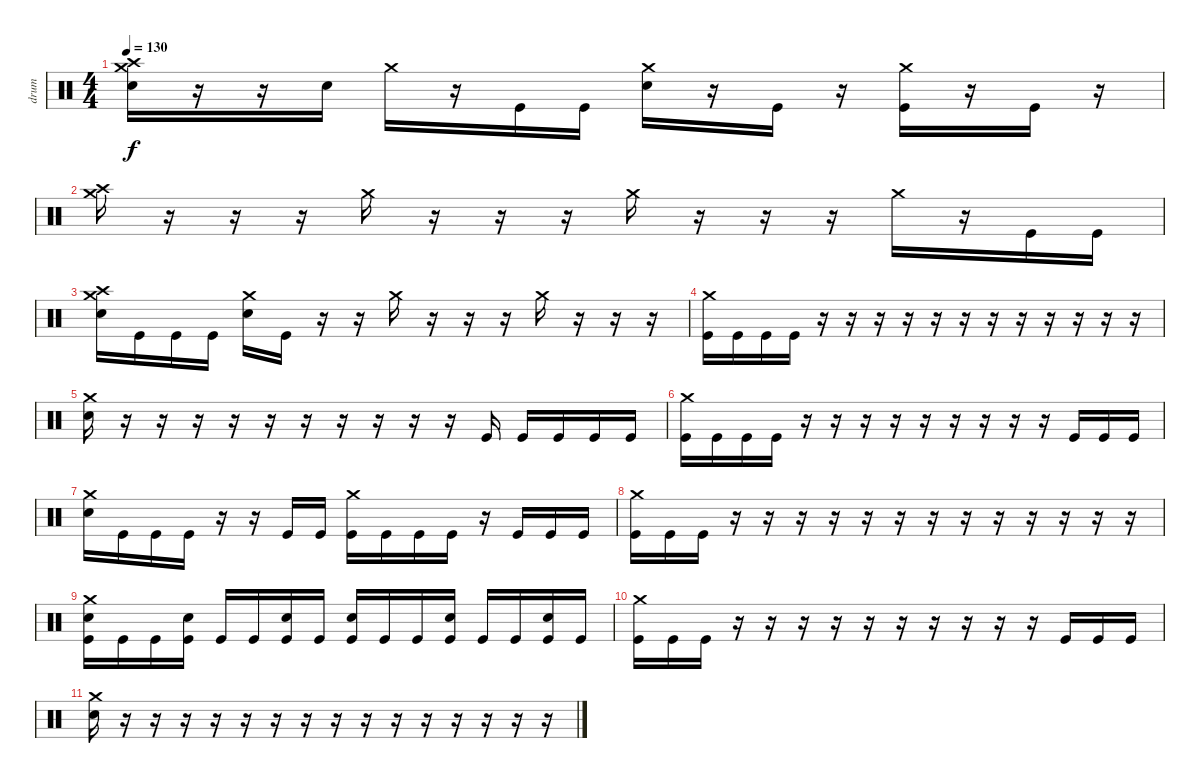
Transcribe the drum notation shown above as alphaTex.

\track ("drum" "drum") {instrument percussion}
\staff {score}
\articulation defaults
\ts (4 4)
\tempo 130
\clef neutral
\ks c
("Crash high (hit)" "Crash medium (hit)" "Snare (hit) 2").16{dy f} r.16 r.16 "Snare (hit) 2".16 "Crash medium (hit)".16 r.16 "Kick (hit)".16 "Kick (hit)".16 ("Crash medium (hit)" "Snare (hit) 2").16 r.16 "Kick (hit)".16 r.16 ("Crash medium (hit)" "Kick (hit)").16 r.16 "Kick (hit)".16 r.16 |
("Crash medium (hit)" "Crash high (hit)").16 r.16 r.16 r.16 "Crash medium (hit)".16 r.16 r.16 r.16 "Crash medium (hit)".16 r.16 r.16 r.16 "Crash medium (hit)".16 r.16 "Kick (hit)".16 "Kick (hit)".16 |
("Crash high (hit)" "Crash medium (hit)" "Snare (hit) 2").16 "Kick (hit)".16 "Kick (hit)".16 "Kick (hit)".16 ("Crash medium (hit)" "Snare (hit) 2").16 "Kick (hit)".16 r.16 r.16 "Crash medium (hit)".16 r.16 r.16 r.16 "Crash medium (hit)".16 r.16 r.16 r.16 |
("Crash medium (hit)" "Kick (hit)").16 "Kick (hit)".16 "Kick (hit)".16 "Kick (hit)".16 r.16 r.16 r.16 r.16 r.16 r.16 r.16 r.16 r.16 r.16 r.16 r.16 |
("Crash medium (hit)" "Snare (hit) 2").16 r.16 r.16 r.16 r.16 r.16 r.16 r.16 r.16 r.16 r.16 "Kick (hit)".16 "Kick (hit)".16 "Kick (hit)".16 "Kick (hit)".16 "Kick (hit)".16 |
("Crash medium (hit)" "Kick (hit)").16 "Kick (hit)".16 "Kick (hit)".16 "Kick (hit)".16 r.16 r.16 r.16 r.16 r.16 r.16 r.16 r.16 r.16 "Kick (hit)".16 "Kick (hit)".16 "Kick (hit)".16 |
("Crash medium (hit)" "Snare (hit) 2").16 "Kick (hit)".16 "Kick (hit)".16 "Kick (hit)".16 r.16 r.16 "Kick (hit)".16 "Kick (hit)".16 ("Crash medium (hit)" "Kick (hit)").16 "Kick (hit)".16 "Kick (hit)".16 "Kick (hit)".16 r.16 "Kick (hit)".16 "Kick (hit)".16 "Kick (hit)".16 |
("Crash medium (hit)" "Kick (hit)").16 "Kick (hit)".16 "Kick (hit)".16 r.16 r.16 r.16 r.16 r.16 r.16 r.16 r.16 r.16 r.16 r.16 r.16 r.16 |
("Crash medium (hit)" "Snare (hit) 2" "Kick (hit)").16 "Kick (hit)".16 "Kick (hit)".16 ("Snare (hit) 2" "Kick (hit)").16 "Kick (hit)".16 "Kick (hit)".16 ("Snare (hit) 2" "Kick (hit)").16 "Kick (hit)".16 ("Snare (hit) 2" "Kick (hit)").16 "Kick (hit)".16 "Kick (hit)".16 ("Snare (hit) 2" "Kick (hit)").16 "Kick (hit)".16 "Kick (hit)".16 ("Kick (hit)" "Snare (hit) 2").16 "Kick (hit)".16 |
("Crash medium (hit)" "Kick (hit)").16 "Kick (hit)".16 "Kick (hit)".16 r.16 r.16 r.16 r.16 r.16 r.16 r.16 r.16 r.16 r.16 "Kick (hit)".16 "Kick (hit)".16 "Kick (hit)".16 |
("Crash medium (hit)" "Snare (hit) 2").16 r.16 r.16 r.16 r.16 r.16 r.16 r.16 r.16 r.16 r.16 r.16 r.16 r.16 r.16 r.16
